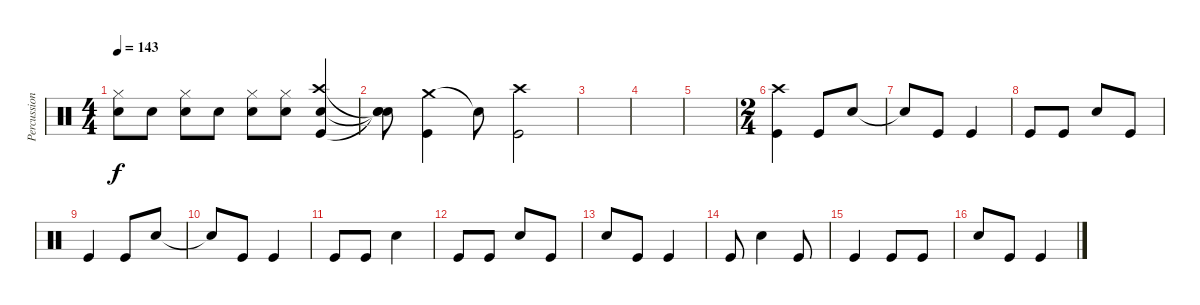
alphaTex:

\track ("Percussion" "Percussion") {instrument percussion}
\staff {score}
\articulation defaults
\ts (4 4)
\tempo 143
\clef neutral
\ks c
("Hi-Hat (closed)" "Electric Snare (hit)").8{dy f volume 10} "Electric Snare (hit)".8{volume 8} ("Hi-Hat (closed)" "Electric Snare (hit)").8 "Electric Snare (hit)".8{volume 10} ("Hi-Hat (closed)" "Electric Snare (hit)").8{volume 8} ("Hi-Hat (closed)" "Electric Snare (hit)").8{volume 10} ("Crash high (hit)" "Electric Snare (hit)" "Kick (hit)").4{volume 16} |
("Snare (hit)"{t} "Snare (hit)"{t} "Snare (hit)"{t}).8 ("Crash medium (hit)" "Kick (hit)").4 "Snare (hit)"{t}.8 ("Crash high (hit)" "Kick (hit)").2 |
|
|
|
\ts (2 4)
("Crash high (hit)" "Kick (hit)").4{volume 16} "Kick (hit)".8 "Electric Snare (hit)".8 |
"Electric Snare (hit)"{t}.8 "Kick (hit)".8 "Kick (hit)".4 |
"Kick (hit)".8 "Kick (hit)".8 "Electric Snare (hit)".8 "Kick (hit)".8 |
"Kick (hit)".4 "Kick (hit)".8 "Electric Snare (hit)".8 |
"Snare (hit)"{t}.8 "Kick (hit)".8 "Kick (hit)".4 |
"Kick (hit)".8 "Kick (hit)".8 "Electric Snare (hit)".4 |
"Kick (hit)".8 "Kick (hit)".8 "Electric Snare (hit)".8 "Kick (hit)".8 |
"Electric Snare (hit)".8 "Kick (hit)".8 "Kick (hit)".4 |
"Kick (hit)".8 "Electric Snare (hit)".4 "Kick (hit)".8 |
"Kick (hit)".4 "Kick (hit)".8 "Kick (hit)".8 |
"Electric Snare (hit)".8 "Kick (hit)".8 "Kick (hit)".4
